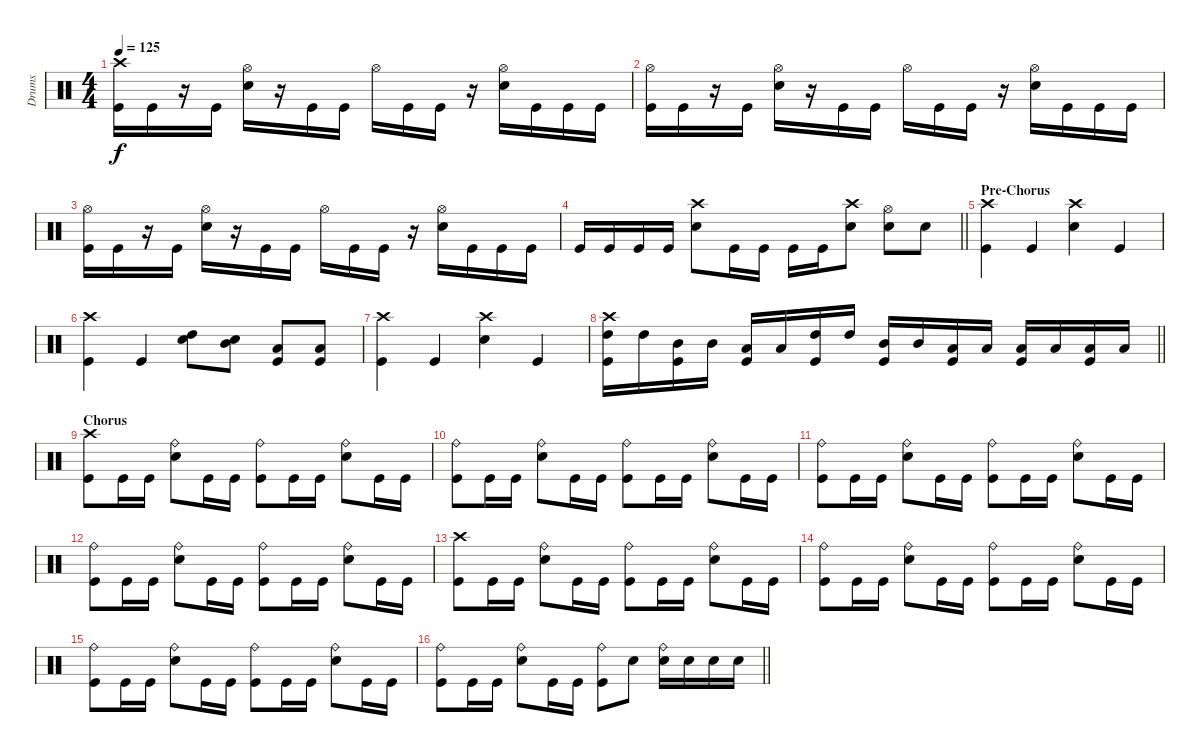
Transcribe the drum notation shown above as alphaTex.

\track ("Drums " "Drums ") {instrument percussion}
\staff {score}
\articulation defaults
\ts (4 4)
\tempo 125
\clef neutral
\ks c
("Crash high (hit)" "Kick (hit)").16{dy f} "Kick (hit)".16 r.16 "Kick (hit)".16 ("Hi-Hat (open)" "Electric Snare (hit)").16 r.16 "Kick (hit)".16 "Kick (hit)".16 "Hi-Hat (open)".16 "Kick (hit)".16 "Kick (hit)".16 r.16 ("Hi-Hat (open)" "Electric Snare (hit)").16 "Kick (hit)".16 "Kick (hit)".16 "Kick (hit)".16 |
("Hi-Hat (open)" "Kick (hit)").16 "Kick (hit)".16 r.16 "Kick (hit)".16 ("Hi-Hat (open)" "Electric Snare (hit)").16 r.16 "Kick (hit)".16 "Kick (hit)".16 "Hi-Hat (open)".16 "Kick (hit)".16 "Kick (hit)".16 r.16 ("Hi-Hat (open)" "Electric Snare (hit)").16 "Kick (hit)".16 "Kick (hit)".16 "Kick (hit)".16 |
("Hi-Hat (open)" "Kick (hit)").16 "Kick (hit)".16 r.16 "Kick (hit)".16 ("Hi-Hat (open)" "Electric Snare (hit)").16 r.16 "Kick (hit)".16 "Kick (hit)".16 "Hi-Hat (open)".16 "Kick (hit)".16 "Kick (hit)".16 r.16 ("Hi-Hat (open)" "Electric Snare (hit)").16 "Kick (hit)".16 "Kick (hit)".16 "Kick (hit)".16 |
\barLineRight lightlight "Kick (hit)".16 "Kick (hit)".16 "Kick (hit)".16 "Kick (hit)".16
("Crash high (hit)" "Electric Snare (hit)").8 "Kick (hit)".16 "Kick (hit)".16 "Kick (hit)".16 "Kick (hit)".16 ("Crash high (hit)" "Electric Snare (hit)").8 ("Hi-Hat (open)" "Electric Snare (hit)").8 "Electric Snare (hit)".8 |
\section ("" "Pre-Chorus")
("Crash high (hit)" "Kick (hit)").4 "Kick (hit)".4 ("Crash high (hit)" "Electric Snare (hit)").4 "Kick (hit)".4 |
("Crash high (hit)" "Kick (hit)").4 "Kick (hit)".4 ("High Tom (hit)" "Electric Snare (hit)").8 ("Mid Tom (hit)" "Electric Snare (hit)").8 ("Low Tom (hit)" "Kick (hit)").8 ("Low Floor Tom (hit)" "Kick (hit)").8 |
("Crash high (hit)" "Kick (hit)").4 "Kick (hit)".4 ("Crash high (hit)" "Electric Snare (hit)").4 "Kick (hit)".4 |
\barLineRight lightlight
("Crash high (hit)" "High Tom (hit)" "Kick (hit)").16 "High Tom (hit)".16 ("Mid Tom (hit)" "Kick (hit)").16 "Mid Tom (hit)".16 ("Low Tom (hit)" "Kick (hit)").16 "Low Tom (hit)".16 ("High Tom (hit)" "Kick (hit)").16 "High Tom (hit)".16 ("Mid Tom (hit)" "Kick (hit)").16 "Mid Tom (hit)".16 ("Low Tom (hit)" "Kick (hit)").16 "Low Tom (hit)".16 ("Low Floor Tom (hit)" "Kick (hit)").16 "Low Floor Tom (hit)".16 ("Low Floor Tom (hit)" "Kick (hit)").16 "Low Floor Tom (hit)".16 |
\section ("" "Chorus ")
("Crash high (hit)" "Kick (hit)").8 "Kick (hit)".16 "Kick (hit)".16 ("Ride (bell)" "Electric Snare (hit)").8 "Kick (hit)".16 "Kick (hit)".16 ("Ride (bell)" "Kick (hit)").8 "Kick (hit)".16 "Kick (hit)".16 ("Ride (bell)" "Electric Snare (hit)").8 "Kick (hit)".16 "Kick (hit)".16 |
("Ride (bell)" "Kick (hit)").8 "Kick (hit)".16 "Kick (hit)".16 ("Ride (bell)" "Electric Snare (hit)").8 "Kick (hit)".16 "Kick (hit)".16 ("Ride (bell)" "Kick (hit)").8 "Kick (hit)".16 "Kick (hit)".16 ("Ride (bell)" "Electric Snare (hit)").8 "Kick (hit)".16 "Kick (hit)".16 |
("Ride (bell)" "Kick (hit)").8 "Kick (hit)".16 "Kick (hit)".16 ("Ride (bell)" "Electric Snare (hit)").8 "Kick (hit)".16 "Kick (hit)".16 ("Ride (bell)" "Kick (hit)").8 "Kick (hit)".16 "Kick (hit)".16 ("Ride (bell)" "Electric Snare (hit)").8 "Kick (hit)".16 "Kick (hit)".16 |
("Ride (bell)" "Kick (hit)").8 "Kick (hit)".16 "Kick (hit)".16 ("Ride (bell)" "Electric Snare (hit)").8 "Kick (hit)".16 "Kick (hit)".16 ("Ride (bell)" "Kick (hit)").8 "Kick (hit)".16 "Kick (hit)".16 ("Ride (bell)" "Electric Snare (hit)").8 "Kick (hit)".16 "Kick (hit)".16 |
("Crash high (hit)" "Kick (hit)").8 "Kick (hit)".16 "Kick (hit)".16 ("Ride (bell)" "Electric Snare (hit)").8 "Kick (hit)".16 "Kick (hit)".16 ("Ride (bell)" "Kick (hit)").8 "Kick (hit)".16 "Kick (hit)".16 ("Ride (bell)" "Electric Snare (hit)").8 "Kick (hit)".16 "Kick (hit)".16 |
("Ride (bell)" "Kick (hit)").8 "Kick (hit)".16 "Kick (hit)".16 ("Ride (bell)" "Electric Snare (hit)").8 "Kick (hit)".16 "Kick (hit)".16 ("Ride (bell)" "Kick (hit)").8 "Kick (hit)".16 "Kick (hit)".16 ("Ride (bell)" "Electric Snare (hit)").8 "Kick (hit)".16 "Kick (hit)".16 |
("Ride (bell)" "Kick (hit)").8 "Kick (hit)".16 "Kick (hit)".16 ("Ride (bell)" "Electric Snare (hit)").8 "Kick (hit)".16 "Kick (hit)".16 ("Ride (bell)" "Kick (hit)").8 "Kick (hit)".16 "Kick (hit)".16 ("Ride (bell)" "Electric Snare (hit)").8 "Kick (hit)".16 "Kick (hit)".16 |
\barLineRight lightlight
("Ride (bell)" "Kick (hit)").8 "Kick (hit)".16 "Kick (hit)".16 ("Ride (bell)" "Electric Snare (hit)").8 "Kick (hit)".16 "Kick (hit)".16 ("Ride (bell)" "Kick (hit)").8 "Electric Snare (hit)".8 ("Ride (bell)" "Electric Snare (hit)").16 "Electric Snare (hit)".16 "Electric Snare (hit)".16 "Electric Snare (hit)".16
